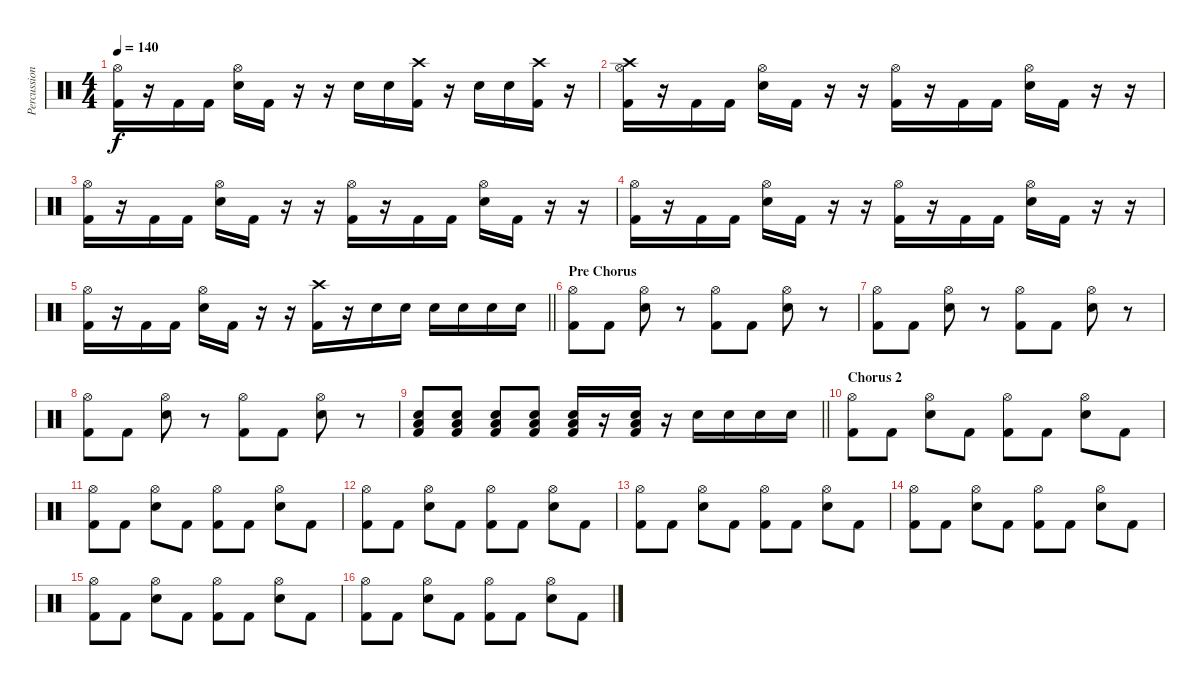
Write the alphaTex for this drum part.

\track ("Percussion" "Percussion") {instrument percussion}
\staff {score}
\articulation defaults
\ts (4 4)
\tempo 140
\clef neutral
\ks c
("Hi-Hat (open)" "Kick (hit) 2").16{dy f} r.16 "Kick (hit) 2".16 "Kick (hit) 2".16 ("Hi-Hat (open)" "Snare (hit) 2").16 "Kick (hit) 2".16 r.16 r.16 "Snare (hit) 2".16 "Snare (hit) 2".16 ("Crash high (hit)" "Kick (hit) 2").16 r.16 "Snare (hit) 2".16 "Snare (hit) 2".16 ("Crash high (hit)" "Kick (hit) 2").16 r.16 |
("Crash high (hit)" "Hi-Hat (open)" "Kick (hit) 2").16 r.16 "Kick (hit) 2".16 "Kick (hit) 2".16 ("Hi-Hat (open)" "Snare (hit) 2").16 "Kick (hit) 2".16 r.16 r.16 ("Hi-Hat (open)" "Kick (hit) 2").16 r.16 "Kick (hit) 2".16 "Kick (hit) 2".16 ("Hi-Hat (open)" "Snare (hit) 2").16 "Kick (hit) 2".16 r.16 r.16 |
("Hi-Hat (open)" "Kick (hit) 2").16 r.16 "Kick (hit) 2".16 "Kick (hit) 2".16 ("Hi-Hat (open)" "Snare (hit) 2").16 "Kick (hit) 2".16 r.16 r.16 ("Hi-Hat (open)" "Kick (hit) 2").16 r.16 "Kick (hit) 2".16 "Kick (hit) 2".16 ("Hi-Hat (open)" "Snare (hit) 2").16 "Kick (hit) 2".16 r.16 r.16 |
("Hi-Hat (open)" "Kick (hit) 2").16 r.16 "Kick (hit) 2".16 "Kick (hit) 2".16 ("Hi-Hat (open)" "Snare (hit) 2").16 "Kick (hit) 2".16 r.16 r.16 ("Hi-Hat (open)" "Kick (hit) 2").16 r.16 "Kick (hit) 2".16 "Kick (hit) 2".16 ("Hi-Hat (open)" "Snare (hit) 2").16 "Kick (hit) 2".16 r.16 r.16 |
\barLineRight lightlight
("Hi-Hat (open)" "Kick (hit) 2").16 r.16 "Kick (hit) 2".16 "Kick (hit) 2".16 ("Hi-Hat (open)" "Snare (hit) 2").16 "Kick (hit) 2".16 r.16 r.16 ("Crash high (hit)" "Kick (hit) 2").16 r.16 "Snare (hit) 2".16 "Snare (hit) 2".16 "Snare (hit) 2".16 "Snare (hit) 2".16 "Snare (hit) 2".16 "Snare (hit) 2".16 |
\section ("" "Pre Chorus")
("Hi-Hat (open)" "Kick (hit) 2").8 "Kick (hit) 2".8 ("Hi-Hat (open)" "Snare (hit) 2").8 r.8 ("Hi-Hat (open)" "Kick (hit) 2").8 "Kick (hit) 2".8 ("Hi-Hat (open)" "Snare (hit) 2").8 r.8 |
("Hi-Hat (open)" "Kick (hit) 2").8 "Kick (hit) 2".8 ("Hi-Hat (open)" "Snare (hit) 2").8 r.8 ("Hi-Hat (open)" "Kick (hit) 2").8 "Kick (hit) 2".8 ("Hi-Hat (open)" "Snare (hit) 2").8 r.8 |
("Hi-Hat (open)" "Kick (hit) 2").8 "Kick (hit) 2".8 ("Hi-Hat (open)" "Snare (hit) 2").8 r.8 ("Hi-Hat (open)" "Kick (hit) 2").8 "Kick (hit) 2".8 ("Hi-Hat (open)" "Snare (hit) 2").8 r.8 |
\barLineRight lightlight
("Low Floor Tom (hit)" "Snare (hit) 2" "Kick (hit) 2").8 ("Low Floor Tom (hit)" "Snare (hit) 2" "Kick (hit) 2").8 ("Low Floor Tom (hit)" "Snare (hit) 2" "Kick (hit) 2").8 ("Low Floor Tom (hit)" "Snare (hit) 2" "Kick (hit) 2").8 ("Low Floor Tom (hit)" "Snare (hit) 2" "Kick (hit) 2").16 r.16 ("Low Floor Tom (hit)" "Snare (hit) 2" "Kick (hit) 2").16 r.16 "Snare (hit) 2".16 "Snare (hit) 2".16 "Snare (hit) 2".16 "Snare (hit) 2".16 |
\section ("" "Chorus 2")
("Hi-Hat (open)" "Kick (hit) 2").8 "Kick (hit) 2".8 ("Hi-Hat (open)" "Snare (hit) 2").8 "Kick (hit) 2".8 ("Hi-Hat (open)" "Kick (hit) 2").8 "Kick (hit) 2".8 ("Hi-Hat (open)" "Snare (hit) 2").8 "Kick (hit) 2".8 |
("Hi-Hat (open)" "Kick (hit) 2").8 "Kick (hit) 2".8 ("Hi-Hat (open)" "Snare (hit) 2").8 "Kick (hit) 2".8 ("Hi-Hat (open)" "Kick (hit) 2").8 "Kick (hit) 2".8 ("Hi-Hat (open)" "Snare (hit) 2").8 "Kick (hit) 2".8 |
("Hi-Hat (open)" "Kick (hit) 2").8 "Kick (hit) 2".8 ("Hi-Hat (open)" "Snare (hit) 2").8 "Kick (hit) 2".8 ("Hi-Hat (open)" "Kick (hit) 2").8 "Kick (hit) 2".8 ("Hi-Hat (open)" "Snare (hit) 2").8 "Kick (hit) 2".8 |
("Hi-Hat (open)" "Kick (hit) 2").8 "Kick (hit) 2".8 ("Hi-Hat (open)" "Snare (hit) 2").8 "Kick (hit) 2".8 ("Hi-Hat (open)" "Kick (hit) 2").8 "Kick (hit) 2".8 ("Hi-Hat (open)" "Snare (hit) 2").8 "Kick (hit) 2".8 |
("Hi-Hat (open)" "Kick (hit) 2").8 "Kick (hit) 2".8 ("Hi-Hat (open)" "Snare (hit) 2").8 "Kick (hit) 2".8 ("Hi-Hat (open)" "Kick (hit) 2").8 "Kick (hit) 2".8 ("Hi-Hat (open)" "Snare (hit) 2").8 "Kick (hit) 2".8 |
("Hi-Hat (open)" "Kick (hit) 2").8 "Kick (hit) 2".8 ("Hi-Hat (open)" "Snare (hit) 2").8 "Kick (hit) 2".8 ("Hi-Hat (open)" "Kick (hit) 2").8 "Kick (hit) 2".8 ("Hi-Hat (open)" "Snare (hit) 2").8 "Kick (hit) 2".8 |
("Hi-Hat (open)" "Kick (hit) 2").8 "Kick (hit) 2".8 ("Hi-Hat (open)" "Snare (hit) 2").8 "Kick (hit) 2".8 ("Hi-Hat (open)" "Kick (hit) 2").8 "Kick (hit) 2".8 ("Hi-Hat (open)" "Snare (hit) 2").8 "Kick (hit) 2".8
